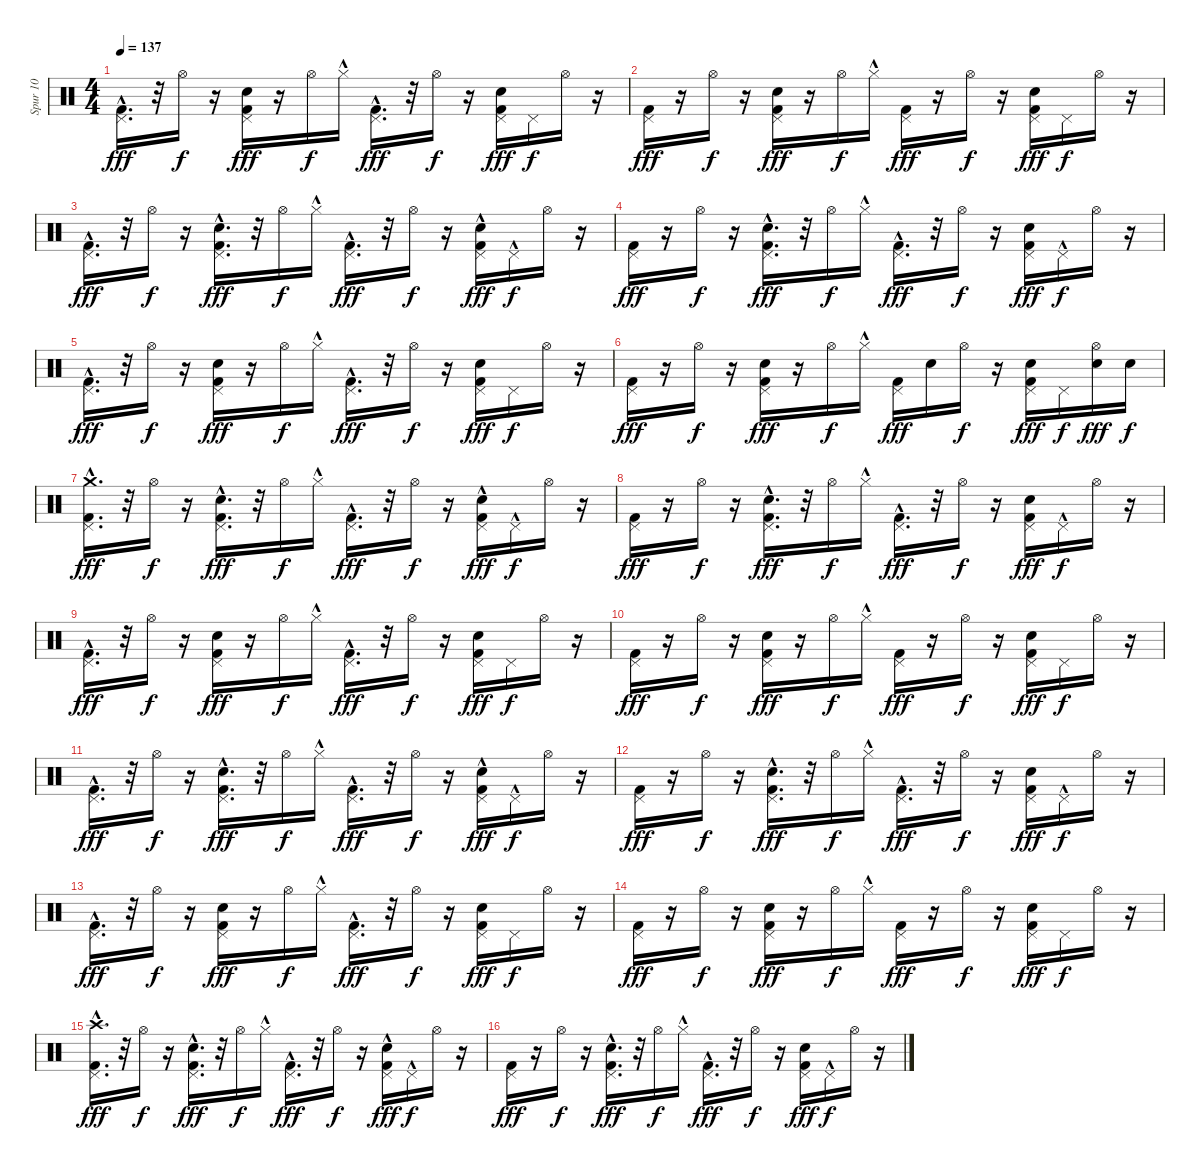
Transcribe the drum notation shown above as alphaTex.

\track ("Spur 10" "Spur 10") {instrument percussion}
\staff {score}
\articulation defaults
\ts (4 4)
\tempo 137
\clef neutral
\ks c
("Pedal Hi-Hat (hit)" "Kick (hit) 2"{hac}).16{d dy fff} r.32 "Hi-Hat (open)".16{dy f} r.16 ("Snare (hit) 2" "Pedal Hi-Hat (hit)" "Kick (hit) 2").16{dy fff} r.16 "Hi-Hat (open)".16{dy f} "Hi-Hat (closed)"{hac}.16 ("Pedal Hi-Hat (hit)" "Kick (hit) 2"{hac}).16{d dy fff} r.32 "Hi-Hat (open)".16{dy f} r.16 ("Snare (hit) 2" "Pedal Hi-Hat (hit)" "Kick (hit) 2").16{dy fff} "Pedal Hi-Hat (hit)".16{dy f} "Hi-Hat (open)".16 r.16 |
("Pedal Hi-Hat (hit)" "Kick (hit) 2").16{dy fff} r.16 "Hi-Hat (open)".16{dy f} r.16 ("Snare (hit) 2" "Pedal Hi-Hat (hit)" "Kick (hit) 2").16{dy fff} r.16 "Hi-Hat (open)".16{dy f} "Hi-Hat (closed)"{hac}.16 ("Pedal Hi-Hat (hit)" "Kick (hit) 2").16{dy fff} r.16 "Hi-Hat (open)".16{dy f} r.16 ("Snare (hit) 2" "Pedal Hi-Hat (hit)" "Kick (hit) 2").16{dy fff} "Pedal Hi-Hat (hit)".16{dy f} "Hi-Hat (open)".16 r.16 |
("Pedal Hi-Hat (hit)" "Kick (hit) 2"{hac}).16{d dy fff} r.32 "Hi-Hat (open)".16{dy f} r.16 ("Snare (hit) 2" "Pedal Hi-Hat (hit)" "Kick (hit) 2"{hac}).16{d dy fff} r.32 "Hi-Hat (open)".16{dy f} "Hi-Hat (closed)"{hac}.16 ("Pedal Hi-Hat (hit)"{hac} "Kick (hit) 2"{hac}).16{d dy fff} r.32 "Hi-Hat (open)".16{dy f} r.16 ("Snare (hit) 2" "Pedal Hi-Hat (hit)" "Kick (hit) 2"{hac}).16{dy fff} "Pedal Hi-Hat (hit)"{hac}.16{dy f} "Hi-Hat (open)".16 r.16 |
("Pedal Hi-Hat (hit)" "Kick (hit) 2").16{dy fff} r.16 "Hi-Hat (open)".16{dy f} r.16 ("Snare (hit) 2" "Pedal Hi-Hat (hit)" "Kick (hit) 2"{hac}).16{d dy fff} r.32 "Hi-Hat (open)".16{dy f} "Hi-Hat (closed)"{hac}.16 ("Pedal Hi-Hat (hit)" "Kick (hit) 2"{hac}).16{d dy fff} r.32 "Hi-Hat (open)".16{dy f} r.16 ("Snare (hit) 2" "Pedal Hi-Hat (hit)" "Kick (hit) 2").16{dy fff} "Pedal Hi-Hat (hit)"{hac}.16{dy f} "Hi-Hat (open)".16 r.16 |
("Pedal Hi-Hat (hit)" "Kick (hit) 2"{hac}).16{d dy fff} r.32 "Hi-Hat (open)".16{dy f} r.16 ("Snare (hit) 2" "Pedal Hi-Hat (hit)" "Kick (hit) 2").16{dy fff} r.16 "Hi-Hat (open)".16{dy f} "Hi-Hat (closed)"{hac}.16 ("Pedal Hi-Hat (hit)" "Kick (hit) 2"{hac}).16{d dy fff} r.32 "Hi-Hat (open)".16{dy f} r.16 ("Snare (hit) 2" "Pedal Hi-Hat (hit)" "Kick (hit) 2").16{dy fff} "Pedal Hi-Hat (hit)".16{dy f} "Hi-Hat (open)".16 r.16 |
("Pedal Hi-Hat (hit)" "Kick (hit) 2").16{dy fff} r.16 "Hi-Hat (open)".16{dy f} r.16 ("Snare (hit) 2" "Pedal Hi-Hat (hit)" "Kick (hit) 2").16{dy fff} r.16 "Hi-Hat (open)".16{dy f} "Hi-Hat (closed)"{hac}.16 ("Pedal Hi-Hat (hit)" "Kick (hit) 2").16{dy fff} "Snare (hit) 2".16 "Hi-Hat (open)".16{dy f} r.16 ("Snare (hit) 2" "Pedal Hi-Hat (hit)" "Kick (hit) 2").16{dy fff} "Pedal Hi-Hat (hit)".16{dy f} ("Snare (hit) 2" "Hi-Hat (open)").16{dy fff} "Snare (hit) 2".16{dy f} |
("Crash medium (hit)" "Pedal Hi-Hat (hit)" "Kick (hit) 2"{hac}).16{d dy fff} r.32 "Hi-Hat (open)".16{dy f} r.16 ("Snare (hit) 2" "Pedal Hi-Hat (hit)" "Kick (hit) 2"{hac}).16{d dy fff} r.32 "Hi-Hat (open)".16{dy f} "Hi-Hat (closed)"{hac}.16 ("Pedal Hi-Hat (hit)"{hac} "Kick (hit) 2"{hac}).16{d dy fff} r.32 "Hi-Hat (open)".16{dy f} r.16 ("Snare (hit) 2" "Pedal Hi-Hat (hit)" "Kick (hit) 2"{hac}).16{dy fff} "Pedal Hi-Hat (hit)"{hac}.16{dy f} "Hi-Hat (open)".16 r.16 |
("Pedal Hi-Hat (hit)" "Kick (hit) 2").16{dy fff} r.16 "Hi-Hat (open)".16{dy f} r.16 ("Snare (hit) 2" "Pedal Hi-Hat (hit)" "Kick (hit) 2"{hac}).16{d dy fff} r.32 "Hi-Hat (open)".16{dy f} "Hi-Hat (closed)"{hac}.16 ("Pedal Hi-Hat (hit)" "Kick (hit) 2"{hac}).16{d dy fff} r.32 "Hi-Hat (open)".16{dy f} r.16 ("Snare (hit) 2" "Pedal Hi-Hat (hit)" "Kick (hit) 2").16{dy fff} "Pedal Hi-Hat (hit)"{hac}.16{dy f} "Hi-Hat (open)".16 r.16 |
("Pedal Hi-Hat (hit)" "Kick (hit) 2"{hac}).16{d dy fff} r.32 "Hi-Hat (open)".16{dy f} r.16 ("Snare (hit) 2" "Pedal Hi-Hat (hit)" "Kick (hit) 2").16{dy fff} r.16 "Hi-Hat (open)".16{dy f} "Hi-Hat (closed)"{hac}.16 ("Pedal Hi-Hat (hit)" "Kick (hit) 2"{hac}).16{d dy fff} r.32 "Hi-Hat (open)".16{dy f} r.16 ("Snare (hit) 2" "Pedal Hi-Hat (hit)" "Kick (hit) 2").16{dy fff} "Pedal Hi-Hat (hit)".16{dy f} "Hi-Hat (open)".16 r.16 |
("Pedal Hi-Hat (hit)" "Kick (hit) 2").16{dy fff} r.16 "Hi-Hat (open)".16{dy f} r.16 ("Snare (hit) 2" "Pedal Hi-Hat (hit)" "Kick (hit) 2").16{dy fff} r.16 "Hi-Hat (open)".16{dy f} "Hi-Hat (closed)"{hac}.16 ("Pedal Hi-Hat (hit)" "Kick (hit) 2").16{dy fff} r.16 "Hi-Hat (open)".16{dy f} r.16 ("Snare (hit) 2" "Pedal Hi-Hat (hit)" "Kick (hit) 2").16{dy fff} "Pedal Hi-Hat (hit)".16{dy f} "Hi-Hat (open)".16 r.16 |
("Pedal Hi-Hat (hit)" "Kick (hit) 2"{hac}).16{d dy fff} r.32 "Hi-Hat (open)".16{dy f} r.16 ("Snare (hit) 2" "Pedal Hi-Hat (hit)" "Kick (hit) 2"{hac}).16{d dy fff} r.32 "Hi-Hat (open)".16{dy f} "Hi-Hat (closed)"{hac}.16 ("Pedal Hi-Hat (hit)"{hac} "Kick (hit) 2"{hac}).16{d dy fff} r.32 "Hi-Hat (open)".16{dy f} r.16 ("Snare (hit) 2" "Pedal Hi-Hat (hit)" "Kick (hit) 2"{hac}).16{dy fff} "Pedal Hi-Hat (hit)"{hac}.16{dy f} "Hi-Hat (open)".16 r.16 |
("Pedal Hi-Hat (hit)" "Kick (hit) 2").16{dy fff} r.16 "Hi-Hat (open)".16{dy f} r.16 ("Snare (hit) 2" "Pedal Hi-Hat (hit)" "Kick (hit) 2"{hac}).16{d dy fff} r.32 "Hi-Hat (open)".16{dy f} "Hi-Hat (closed)"{hac}.16 ("Pedal Hi-Hat (hit)" "Kick (hit) 2"{hac}).16{d dy fff} r.32 "Hi-Hat (open)".16{dy f} r.16 ("Snare (hit) 2" "Pedal Hi-Hat (hit)" "Kick (hit) 2").16{dy fff} "Pedal Hi-Hat (hit)"{hac}.16{dy f} "Hi-Hat (open)".16 r.16 |
("Pedal Hi-Hat (hit)" "Kick (hit) 2"{hac}).16{d dy fff} r.32 "Hi-Hat (open)".16{dy f} r.16 ("Snare (hit) 2" "Pedal Hi-Hat (hit)" "Kick (hit) 2").16{dy fff} r.16 "Hi-Hat (open)".16{dy f} "Hi-Hat (closed)"{hac}.16 ("Pedal Hi-Hat (hit)" "Kick (hit) 2"{hac}).16{d dy fff} r.32 "Hi-Hat (open)".16{dy f} r.16 ("Snare (hit) 2" "Pedal Hi-Hat (hit)" "Kick (hit) 2").16{dy fff} "Pedal Hi-Hat (hit)".16{dy f} "Hi-Hat (open)".16 r.16 |
("Pedal Hi-Hat (hit)" "Kick (hit) 2").16{dy fff} r.16 "Hi-Hat (open)".16{dy f} r.16 ("Snare (hit) 2" "Pedal Hi-Hat (hit)" "Kick (hit) 2").16{dy fff} r.16 "Hi-Hat (open)".16{dy f} "Hi-Hat (closed)"{hac}.16 ("Pedal Hi-Hat (hit)" "Kick (hit) 2").16{dy fff} r.16 "Hi-Hat (open)".16{dy f} r.16 ("Snare (hit) 2" "Pedal Hi-Hat (hit)" "Kick (hit) 2").16{dy fff} "Pedal Hi-Hat (hit)".16{dy f} "Hi-Hat (open)".16 r.16 |
("Crash high (hit)" "Pedal Hi-Hat (hit)" "Kick (hit) 2"{hac}).16{d dy fff} r.32 "Hi-Hat (open)".16{dy f} r.16 ("Snare (hit) 2" "Pedal Hi-Hat (hit)" "Kick (hit) 2"{hac}).16{d dy fff} r.32 "Hi-Hat (open)".16{dy f} "Hi-Hat (closed)"{hac}.16 ("Pedal Hi-Hat (hit)"{hac} "Kick (hit) 2"{hac}).16{d dy fff} r.32 "Hi-Hat (open)".16{dy f} r.16 ("Snare (hit) 2" "Pedal Hi-Hat (hit)" "Kick (hit) 2"{hac}).16{dy fff} "Pedal Hi-Hat (hit)"{hac}.16{dy f} "Hi-Hat (open)".16 r.16 |
("Pedal Hi-Hat (hit)" "Kick (hit) 2").16{dy fff} r.16 "Hi-Hat (open)".16{dy f} r.16 ("Snare (hit) 2" "Pedal Hi-Hat (hit)" "Kick (hit) 2"{hac}).16{d dy fff} r.32 "Hi-Hat (open)".16{dy f} "Hi-Hat (closed)"{hac}.16 ("Pedal Hi-Hat (hit)" "Kick (hit) 2"{hac}).16{d dy fff} r.32 "Hi-Hat (open)".16{dy f} r.16 ("Snare (hit) 2" "Pedal Hi-Hat (hit)" "Kick (hit) 2").16{dy fff} "Pedal Hi-Hat (hit)"{hac}.16{dy f} "Hi-Hat (open)".16 r.16
